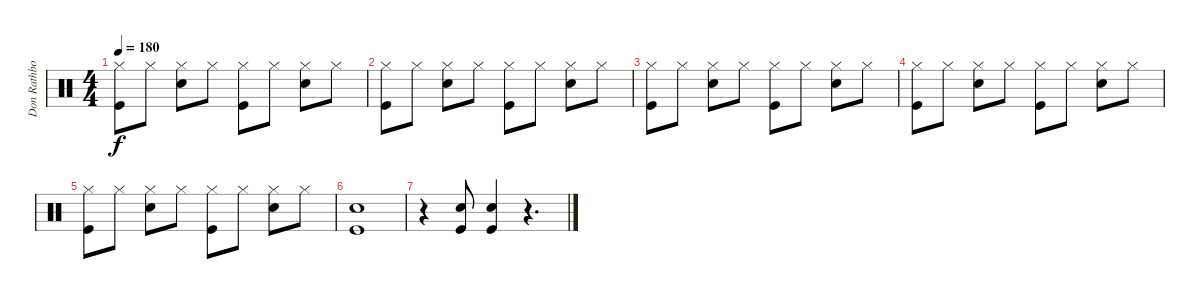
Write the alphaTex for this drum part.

\track ("Don Rathbone" "Don Rathbo") {instrument percussion}
\staff {score}
\articulation defaults
\ts (4 4)
\tempo 180
\clef neutral
\ks c
("Hi-Hat (closed)" "Kick (hit)").8{dy f} "Hi-Hat (closed)".8 ("Hi-Hat (closed)" "Snare (hit) 2").8 "Hi-Hat (closed)".8 ("Hi-Hat (closed)" "Kick (hit)").8 "Hi-Hat (closed)".8 ("Hi-Hat (closed)" "Snare (hit) 2").8 "Hi-Hat (closed)".8 |
("Hi-Hat (closed)" "Kick (hit)").8 "Hi-Hat (closed)".8 ("Hi-Hat (closed)" "Snare (hit) 2").8 "Hi-Hat (closed)".8 ("Hi-Hat (closed)" "Kick (hit)").8 "Hi-Hat (closed)".8 ("Hi-Hat (closed)" "Snare (hit) 2").8 "Hi-Hat (closed)".8 |
("Hi-Hat (closed)" "Kick (hit)").8 "Hi-Hat (closed)".8 ("Hi-Hat (closed)" "Snare (hit) 2").8 "Hi-Hat (closed)".8 ("Hi-Hat (closed)" "Kick (hit)").8 "Hi-Hat (closed)".8 ("Hi-Hat (closed)" "Snare (hit) 2").8 "Hi-Hat (closed)".8 |
("Hi-Hat (closed)" "Kick (hit)").8 "Hi-Hat (closed)".8 ("Hi-Hat (closed)" "Snare (hit) 2").8 "Hi-Hat (closed)".8 ("Hi-Hat (closed)" "Kick (hit)").8 "Hi-Hat (closed)".8 ("Hi-Hat (closed)" "Snare (hit) 2").8 "Hi-Hat (closed)".8 |
("Hi-Hat (closed)" "Kick (hit)").8 "Hi-Hat (closed)".8 ("Hi-Hat (closed)" "Snare (hit) 2").8 "Hi-Hat (closed)".8 ("Hi-Hat (closed)" "Kick (hit)").8 "Hi-Hat (closed)".8 ("Hi-Hat (closed)" "Snare (hit) 2").8 "Hi-Hat (closed)".8 |
("Snare (hit) 2" "Kick (hit)").1 |
r.4 ("Snare (hit) 2" "Kick (hit)").8 ("Snare (hit) 2" "Kick (hit)").4 r.4{d}
